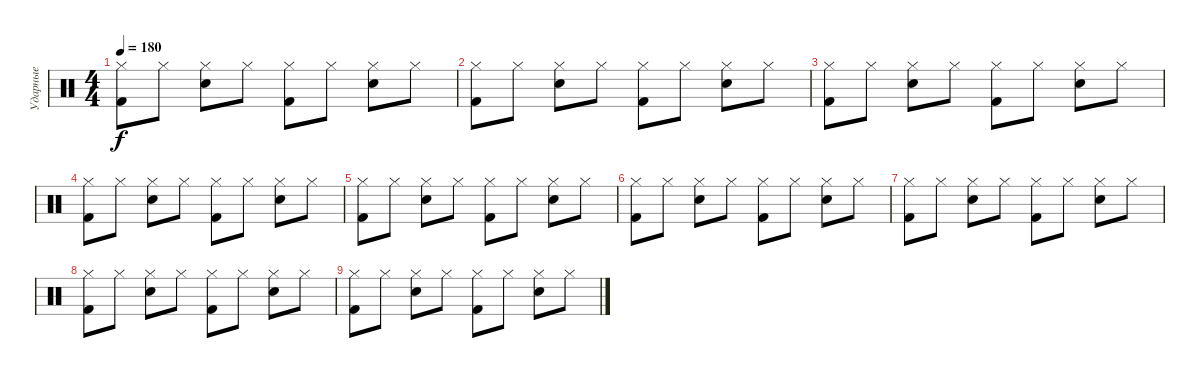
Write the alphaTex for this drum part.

\track ("Ударные" "Ударные") {instrument percussion}
\staff {score}
\articulation defaults
\ts (4 4)
\tempo 180
\clef neutral
\ks c
("Hi-Hat (closed)" "Kick (hit) 2").8{dy f} "Hi-Hat (closed)".8 ("Hi-Hat (closed)" "Electric Snare (hit)").8 "Hi-Hat (closed)".8 ("Hi-Hat (closed)" "Kick (hit) 2").8 "Hi-Hat (closed)".8 ("Hi-Hat (closed)" "Electric Snare (hit)").8 "Hi-Hat (closed)".8 |
("Hi-Hat (closed)" "Kick (hit) 2").8 "Hi-Hat (closed)".8 ("Hi-Hat (closed)" "Electric Snare (hit)").8 "Hi-Hat (closed)".8 ("Hi-Hat (closed)" "Kick (hit) 2").8 "Hi-Hat (closed)".8 ("Hi-Hat (closed)" "Electric Snare (hit)").8 "Hi-Hat (closed)".8 |
("Hi-Hat (closed)" "Kick (hit) 2").8 "Hi-Hat (closed)".8 ("Hi-Hat (closed)" "Electric Snare (hit)").8 "Hi-Hat (closed)".8 ("Hi-Hat (closed)" "Kick (hit) 2").8 "Hi-Hat (closed)".8 ("Hi-Hat (closed)" "Electric Snare (hit)").8 "Hi-Hat (closed)".8 |
("Hi-Hat (closed)" "Kick (hit) 2").8 "Hi-Hat (closed)".8 ("Hi-Hat (closed)" "Electric Snare (hit)").8 "Hi-Hat (closed)".8 ("Hi-Hat (closed)" "Kick (hit) 2").8 "Hi-Hat (closed)".8 ("Hi-Hat (closed)" "Electric Snare (hit)").8 "Hi-Hat (closed)".8 |
("Hi-Hat (closed)" "Kick (hit) 2").8 "Hi-Hat (closed)".8 ("Hi-Hat (closed)" "Electric Snare (hit)").8 "Hi-Hat (closed)".8 ("Hi-Hat (closed)" "Kick (hit) 2").8 "Hi-Hat (closed)".8 ("Hi-Hat (closed)" "Electric Snare (hit)").8 "Hi-Hat (closed)".8 |
("Hi-Hat (closed)" "Kick (hit) 2").8 "Hi-Hat (closed)".8 ("Hi-Hat (closed)" "Electric Snare (hit)").8 "Hi-Hat (closed)".8 ("Hi-Hat (closed)" "Kick (hit) 2").8 "Hi-Hat (closed)".8 ("Hi-Hat (closed)" "Electric Snare (hit)").8 "Hi-Hat (closed)".8 |
("Hi-Hat (closed)" "Kick (hit) 2").8 "Hi-Hat (closed)".8 ("Hi-Hat (closed)" "Electric Snare (hit)").8 "Hi-Hat (closed)".8 ("Hi-Hat (closed)" "Kick (hit) 2").8 "Hi-Hat (closed)".8 ("Hi-Hat (closed)" "Electric Snare (hit)").8 "Hi-Hat (closed)".8 |
("Hi-Hat (closed)" "Kick (hit) 2").8 "Hi-Hat (closed)".8 ("Hi-Hat (closed)" "Electric Snare (hit)").8 "Hi-Hat (closed)".8 ("Hi-Hat (closed)" "Kick (hit) 2").8 "Hi-Hat (closed)".8 ("Hi-Hat (closed)" "Electric Snare (hit)").8 "Hi-Hat (closed)".8 |
("Hi-Hat (closed)" "Kick (hit) 2").8 "Hi-Hat (closed)".8 ("Hi-Hat (closed)" "Electric Snare (hit)").8 "Hi-Hat (closed)".8 ("Hi-Hat (closed)" "Kick (hit) 2").8 "Hi-Hat (closed)".8 ("Hi-Hat (closed)" "Electric Snare (hit)").8 "Hi-Hat (closed)".8
